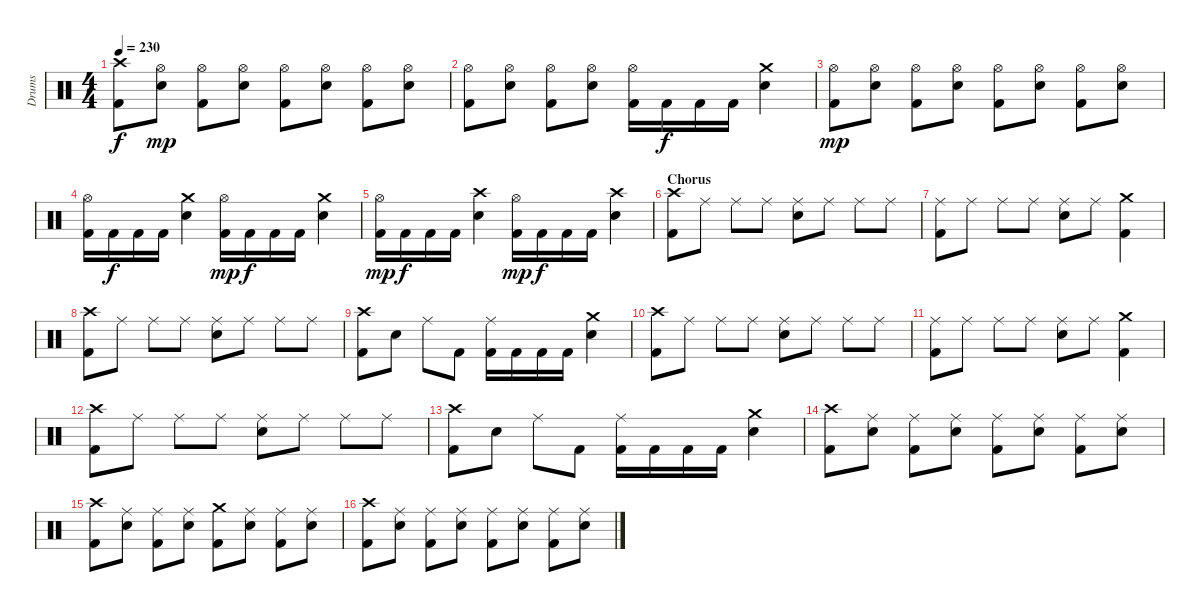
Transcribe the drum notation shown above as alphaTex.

\track ("Drums" "Drums") {instrument percussion}
\staff {score}
\articulation defaults
\ts (4 4)
\tempo 230
\clef neutral
\ks c
("Crash high (hit)" "Kick (hit) 2").8{dy f} ("Hi-Hat (open)" "Snare (hit) 2").8{dy mp} ("Hi-Hat (open)" "Kick (hit) 2").8 ("Hi-Hat (open)" "Snare (hit) 2").8 ("Hi-Hat (open)" "Kick (hit) 2").8 ("Hi-Hat (open)" "Snare (hit) 2").8 ("Hi-Hat (open)" "Kick (hit) 2").8 ("Hi-Hat (open)" "Snare (hit) 2").8 |
("Hi-Hat (open)" "Kick (hit) 2").8 ("Hi-Hat (open)" "Snare (hit) 2").8 ("Hi-Hat (open)" "Kick (hit) 2").8 ("Hi-Hat (open)" "Snare (hit) 2").8 ("Hi-Hat (open)" "Kick (hit) 2").16 "Kick (hit) 2".16{dy f} "Kick (hit) 2".16 "Kick (hit) 2".16 ("Crash medium (hit)" "Snare (hit) 2").4 |
("Hi-Hat (open)" "Kick (hit) 2").8{dy mp} ("Hi-Hat (open)" "Snare (hit) 2").8 ("Hi-Hat (open)" "Kick (hit) 2").8 ("Hi-Hat (open)" "Snare (hit) 2").8 ("Hi-Hat (open)" "Kick (hit) 2").8 ("Hi-Hat (open)" "Snare (hit) 2").8 ("Hi-Hat (open)" "Kick (hit) 2").8 ("Hi-Hat (open)" "Snare (hit) 2").8 |
("Hi-Hat (open)" "Kick (hit) 2").16 "Kick (hit) 2".16{dy f} "Kick (hit) 2".16 "Kick (hit) 2".16 ("Crash medium (hit)" "Snare (hit) 2").4 ("Hi-Hat (open)" "Kick (hit) 2").16{dy mp} "Kick (hit) 2".16{dy f} "Kick (hit) 2".16 "Kick (hit) 2".16 ("Crash medium (hit)" "Snare (hit) 2").4 |
("Hi-Hat (open)" "Kick (hit) 2").16{dy mp} "Kick (hit) 2".16{dy f} "Kick (hit) 2".16 "Kick (hit) 2".16 ("Crash high (hit)" "Snare (hit) 2").4 ("Hi-Hat (open)" "Kick (hit) 2").16{dy mp} "Kick (hit) 2".16{dy f} "Kick (hit) 2".16 "Kick (hit) 2".16 ("Crash high (hit)" "Snare (hit) 2").4 |
\section ("" "Chorus")
("Crash high (hit)" "Kick (hit) 2").8 "Ride (middle)".8 "Ride (middle)".8 "Ride (middle)".8 ("Ride (middle)" "Snare (hit) 2").8 "Ride (middle)".8 "Ride (middle)".8 "Ride (middle)".8 |
("Ride (middle)" "Kick (hit) 2").8 "Ride (middle)".8 "Ride (middle)".8 "Ride (middle)".8 ("Ride (middle)" "Snare (hit) 2").8 "Ride (middle)".8 ("Crash medium (hit)" "Kick (hit) 2").4 |
("Crash high (hit)" "Kick (hit) 2").8 "Ride (middle)".8 "Ride (middle)".8 "Ride (middle)".8 ("Ride (middle)" "Snare (hit) 2").8 "Ride (middle)".8 "Ride (middle)".8 "Ride (middle)".8 |
("Crash high (hit)" "Kick (hit) 2").8 "Snare (hit) 2".8 "Ride (middle)".8 "Kick (hit) 2".8 ("Ride (middle)" "Kick (hit) 2").16 "Kick (hit) 2".16 "Kick (hit) 2".16 "Kick (hit) 2".16 ("Crash medium (hit)" "Snare (hit) 2").4 |
("Crash high (hit)" "Kick (hit) 2").8 "Ride (middle)".8 "Ride (middle)".8 "Ride (middle)".8 ("Ride (middle)" "Snare (hit) 2").8 "Ride (middle)".8 "Ride (middle)".8 "Ride (middle)".8 |
("Ride (middle)" "Kick (hit) 2").8 "Ride (middle)".8 "Ride (middle)".8 "Ride (middle)".8 ("Ride (middle)" "Snare (hit) 2").8 "Ride (middle)".8 ("Crash medium (hit)" "Kick (hit) 2").4 |
("Crash high (hit)" "Kick (hit) 2").8 "Ride (middle)".8 "Ride (middle)".8 "Ride (middle)".8 ("Ride (middle)" "Snare (hit) 2").8 "Ride (middle)".8 "Ride (middle)".8 "Ride (middle)".8 |
("Crash high (hit)" "Kick (hit) 2").8 "Snare (hit) 2".8 "Ride (middle)".8 "Kick (hit) 2".8 ("Ride (middle)" "Kick (hit) 2").16 "Kick (hit) 2".16 "Kick (hit) 2".16 "Kick (hit) 2".16 ("Crash medium (hit)" "Snare (hit) 2").4 |
\section ("" "")
("Crash high (hit)" "Kick (hit) 2").8 ("Ride (middle)" "Snare (hit) 2").8 ("Ride (middle)" "Kick (hit) 2").8 ("Ride (middle)" "Snare (hit) 2").8 ("Ride (middle)" "Kick (hit) 2").8 ("Ride (middle)" "Snare (hit) 2").8 ("Ride (middle)" "Kick (hit) 2").8 ("Ride (middle)" "Snare (hit) 2").8 |
("Crash high (hit)" "Kick (hit) 2").8 ("Ride (middle)" "Snare (hit) 2").8 ("Ride (middle)" "Kick (hit) 2").8 ("Ride (middle)" "Snare (hit) 2").8 ("Crash medium (hit)" "Kick (hit) 2").8 ("Ride (middle)" "Snare (hit) 2").8 ("Ride (middle)" "Kick (hit) 2").8 ("Ride (middle)" "Snare (hit) 2").8 |
("Crash high (hit)" "Kick (hit) 2").8 ("Ride (middle)" "Snare (hit) 2").8 ("Ride (middle)" "Kick (hit) 2").8 ("Ride (middle)" "Snare (hit) 2").8 ("Ride (middle)" "Kick (hit) 2").8 ("Ride (middle)" "Snare (hit) 2").8 ("Ride (middle)" "Kick (hit) 2").8 ("Ride (middle)" "Snare (hit) 2").8
